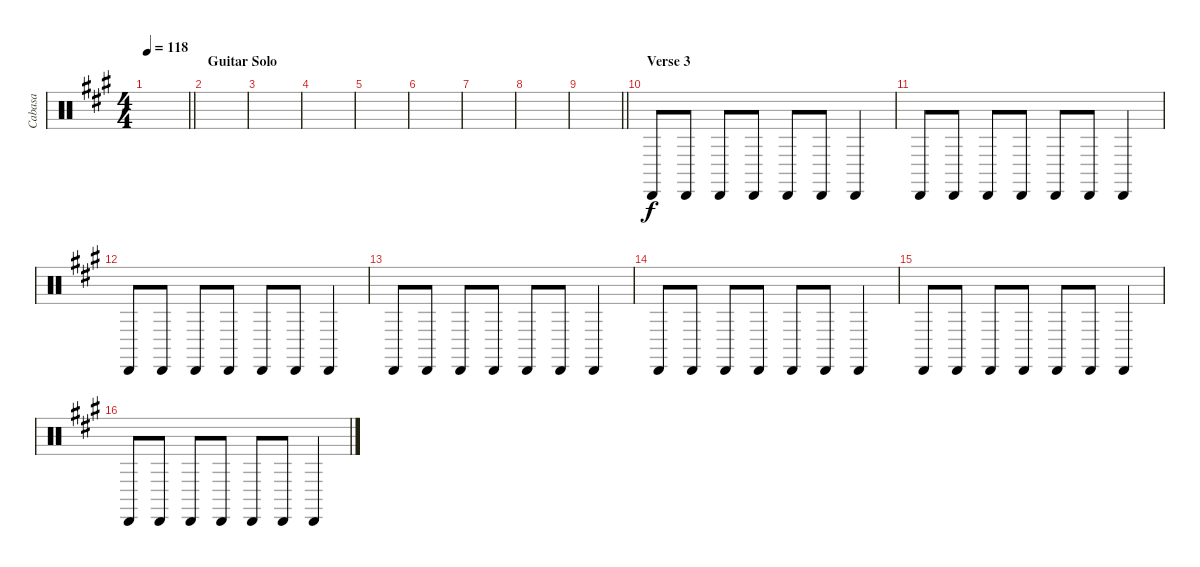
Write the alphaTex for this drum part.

\track ("Cabasa" "Cabasa") {instrument percussion}
\staff {score}
\articulation defaults
\ts (4 4)
\tempo 118
\clef neutral
\barLineRight lightlight
\ks a
|
\section ("" "Guitar Solo")
|
|
|
|
|
|
|
\barLineRight lightlight
|
\section ("" "Verse 3")
"Cabasa (hit)".8 "Cabasa (hit)".8 "Cabasa (hit)".8 "Cabasa (hit)".8 "Cabasa (hit)".8 "Cabasa (hit)".8 "Cabasa (hit)".4 |
"Cabasa (hit)".8 "Cabasa (hit)".8 "Cabasa (hit)".8 "Cabasa (hit)".8 "Cabasa (hit)".8 "Cabasa (hit)".8 "Cabasa (hit)".4 |
"Cabasa (hit)".8 "Cabasa (hit)".8 "Cabasa (hit)".8 "Cabasa (hit)".8 "Cabasa (hit)".8 "Cabasa (hit)".8 "Cabasa (hit)".4 |
"Cabasa (hit)".8 "Cabasa (hit)".8 "Cabasa (hit)".8 "Cabasa (hit)".8 "Cabasa (hit)".8 "Cabasa (hit)".8 "Cabasa (hit)".4 |
"Cabasa (hit)".8 "Cabasa (hit)".8 "Cabasa (hit)".8 "Cabasa (hit)".8 "Cabasa (hit)".8 "Cabasa (hit)".8 "Cabasa (hit)".4 |
"Cabasa (hit)".8 "Cabasa (hit)".8 "Cabasa (hit)".8 "Cabasa (hit)".8 "Cabasa (hit)".8 "Cabasa (hit)".8 "Cabasa (hit)".4 |
"Cabasa (hit)".8 "Cabasa (hit)".8 "Cabasa (hit)".8 "Cabasa (hit)".8 "Cabasa (hit)".8 "Cabasa (hit)".8 "Cabasa (hit)".4
